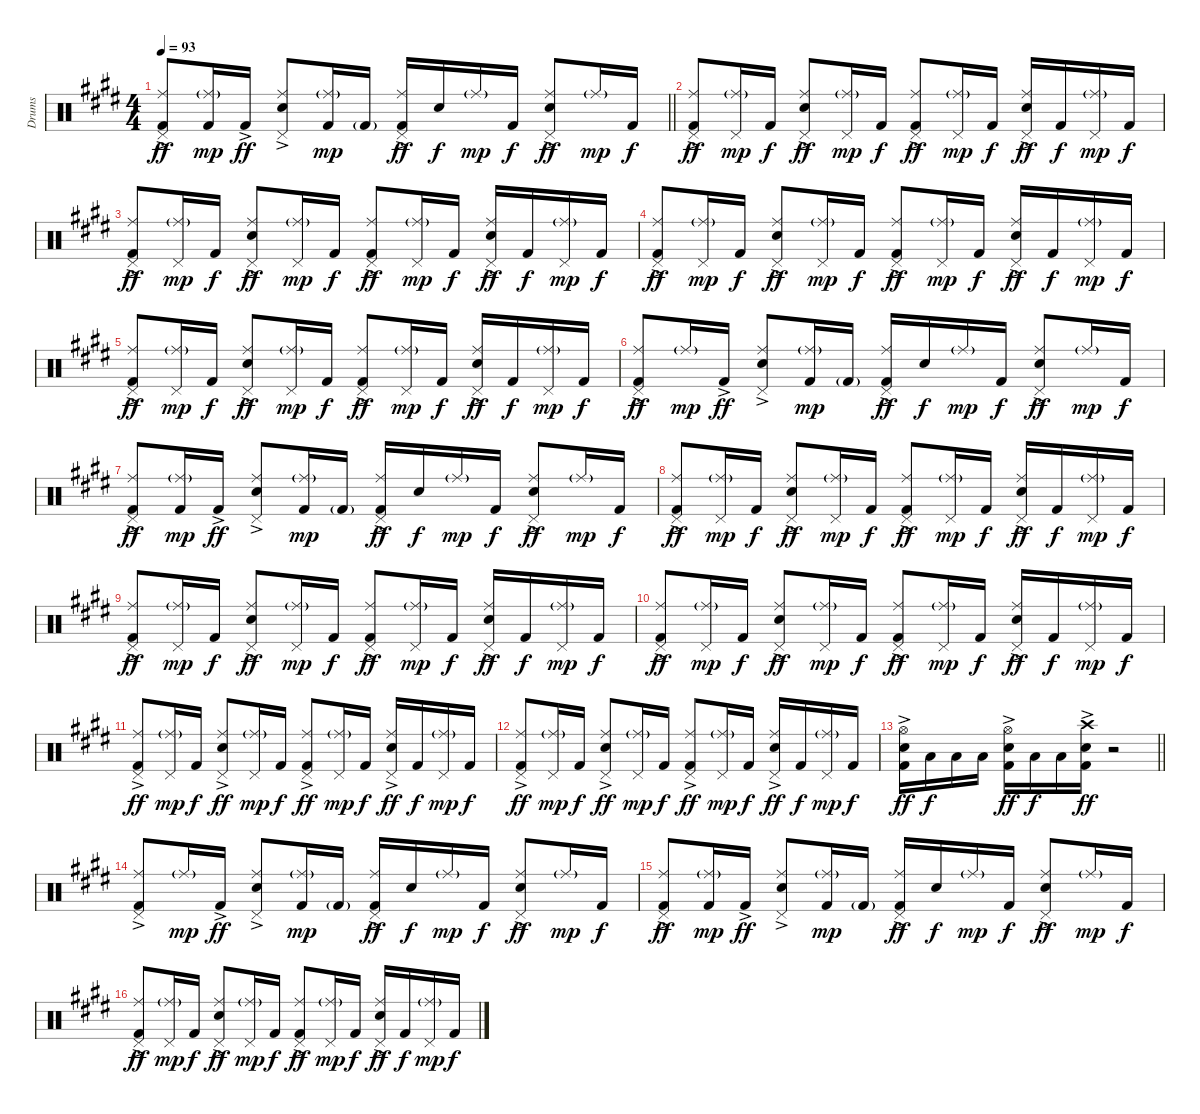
\track ("Drums" "Drums") {instrument percussion}
\staff {score}
\articulation defaults
\ts (4 4)
\tempo 93
\clef neutral
\barLineRight lightlight
\ks e
("Pedal Hi-Hat (hit)" "Ride (middle)" "Kick (hit) 2"{ac}).8{dy ff} ("Ride (middle)"{g} "Kick (hit) 2").16{dy mp} "Kick (hit) 2"{ac}.16{dy ff} ("Pedal Hi-Hat (hit)" "Ride (middle)" "Snare (hit) 2"{ac}).8 ("Ride (middle)"{g} "Kick (hit) 2").16{dy mp} "Kick (hit) 2"{g}.16 ("Pedal Hi-Hat (hit)" "Ride (middle)" "Kick (hit) 2"{ac}).16{dy ff} "Snare (hit) 2".16{dy f} "Ride (middle)"{g}.16{dy mp} "Kick (hit) 2".16{dy f} ("Pedal Hi-Hat (hit)" "Ride (middle)" "Snare (hit) 2"{ac}).8{dy ff} "Ride (middle)"{g}.16{dy mp} "Kick (hit) 2".16{dy f} |
("Pedal Hi-Hat (hit)" "Ride (middle)" "Kick (hit) 2"{ac}).8{dy ff} ("Pedal Hi-Hat (hit)" "Ride (middle)"{g}).16{dy mp} "Kick (hit) 2".16{dy f} ("Pedal Hi-Hat (hit)" "Ride (middle)" "Snare (hit) 2"{ac}).8{dy ff} ("Pedal Hi-Hat (hit)" "Ride (middle)"{g}).16{dy mp} "Kick (hit) 2".16{dy f} ("Pedal Hi-Hat (hit)" "Ride (middle)" "Kick (hit) 2"{ac}).8{dy ff} ("Pedal Hi-Hat (hit)" "Ride (middle)"{g}).16{dy mp} "Kick (hit) 2".16{dy f} ("Pedal Hi-Hat (hit)" "Ride (middle)" "Snare (hit) 2"{ac}).16{dy ff} "Kick (hit) 2".16{dy f} ("Pedal Hi-Hat (hit)" "Ride (middle)"{g}).16{dy mp} "Kick (hit) 2".16{dy f} |
("Pedal Hi-Hat (hit)" "Ride (middle)" "Kick (hit) 2"{ac}).8{dy ff} ("Pedal Hi-Hat (hit)" "Ride (middle)"{g}).16{dy mp} "Kick (hit) 2".16{dy f} ("Pedal Hi-Hat (hit)" "Ride (middle)" "Snare (hit) 2"{ac}).8{dy ff} ("Pedal Hi-Hat (hit)" "Ride (middle)"{g}).16{dy mp} "Kick (hit) 2".16{dy f} ("Pedal Hi-Hat (hit)" "Ride (middle)" "Kick (hit) 2"{ac}).8{dy ff} ("Pedal Hi-Hat (hit)" "Ride (middle)"{g}).16{dy mp} "Kick (hit) 2".16{dy f} ("Pedal Hi-Hat (hit)" "Ride (middle)" "Snare (hit) 2"{ac}).16{dy ff} "Kick (hit) 2".16{dy f} ("Pedal Hi-Hat (hit)" "Ride (middle)"{g}).16{dy mp} "Kick (hit) 2".16{dy f} |
("Pedal Hi-Hat (hit)" "Ride (middle)" "Kick (hit) 2"{ac}).8{dy ff} ("Pedal Hi-Hat (hit)" "Ride (middle)"{g}).16{dy mp} "Kick (hit) 2".16{dy f} ("Pedal Hi-Hat (hit)" "Ride (middle)" "Snare (hit) 2"{ac}).8{dy ff} ("Pedal Hi-Hat (hit)" "Ride (middle)"{g}).16{dy mp} "Kick (hit) 2".16{dy f} ("Pedal Hi-Hat (hit)" "Ride (middle)" "Kick (hit) 2"{ac}).8{dy ff} ("Pedal Hi-Hat (hit)" "Ride (middle)"{g}).16{dy mp} "Kick (hit) 2".16{dy f} ("Pedal Hi-Hat (hit)" "Ride (middle)" "Snare (hit) 2"{ac}).16{dy ff} "Kick (hit) 2".16{dy f} ("Pedal Hi-Hat (hit)" "Ride (middle)"{g}).16{dy mp} "Kick (hit) 2".16{dy f} |
("Pedal Hi-Hat (hit)" "Ride (middle)" "Kick (hit) 2"{ac}).8{dy ff} ("Pedal Hi-Hat (hit)" "Ride (middle)"{g}).16{dy mp} "Kick (hit) 2".16{dy f} ("Pedal Hi-Hat (hit)" "Ride (middle)" "Snare (hit) 2"{ac}).8{dy ff} ("Pedal Hi-Hat (hit)" "Ride (middle)"{g}).16{dy mp} "Kick (hit) 2".16{dy f} ("Pedal Hi-Hat (hit)" "Ride (middle)" "Kick (hit) 2"{ac}).8{dy ff} ("Pedal Hi-Hat (hit)" "Ride (middle)"{g}).16{dy mp} "Kick (hit) 2".16{dy f} ("Pedal Hi-Hat (hit)" "Ride (middle)" "Snare (hit) 2"{ac}).16{dy ff} "Kick (hit) 2".16{dy f} ("Pedal Hi-Hat (hit)" "Ride (middle)"{g}).16{dy mp} "Kick (hit) 2".16{dy f} |
("Pedal Hi-Hat (hit)" "Ride (middle)" "Kick (hit) 2"{ac}).8{dy ff} "Ride (middle)"{g}.16{dy mp} "Kick (hit) 2"{ac}.16{dy ff} ("Pedal Hi-Hat (hit)" "Ride (middle)" "Snare (hit) 2"{ac}).8 ("Ride (middle)"{g} "Kick (hit) 2").16{dy mp} "Kick (hit) 2"{g}.16 ("Pedal Hi-Hat (hit)" "Ride (middle)" "Kick (hit) 2"{ac}).16{dy ff} "Snare (hit) 2".16{dy f} "Ride (middle)"{g}.16{dy mp} "Kick (hit) 2".16{dy f} ("Pedal Hi-Hat (hit)" "Ride (middle)" "Snare (hit) 2"{ac}).8{dy ff} "Ride (middle)"{g}.16{dy mp} "Kick (hit) 2".16{dy f} |
("Pedal Hi-Hat (hit)" "Ride (middle)" "Kick (hit) 2"{ac}).8{dy ff} ("Ride (middle)"{g} "Kick (hit) 2").16{dy mp} "Kick (hit) 2"{ac}.16{dy ff} ("Pedal Hi-Hat (hit)" "Ride (middle)" "Snare (hit) 2"{ac}).8 ("Ride (middle)"{g} "Kick (hit) 2").16{dy mp} "Kick (hit) 2"{g}.16 ("Pedal Hi-Hat (hit)" "Ride (middle)" "Kick (hit) 2"{ac}).16{dy ff} "Snare (hit) 2".16{dy f} "Ride (middle)"{g}.16{dy mp} "Kick (hit) 2".16{dy f} ("Pedal Hi-Hat (hit)" "Ride (middle)" "Snare (hit) 2"{ac}).8{dy ff} "Ride (middle)"{g}.16{dy mp} "Kick (hit) 2".16{dy f} |
("Pedal Hi-Hat (hit)" "Ride (middle)" "Kick (hit) 2"{ac}).8{dy ff} ("Pedal Hi-Hat (hit)" "Ride (middle)"{g}).16{dy mp} "Kick (hit) 2".16{dy f} ("Pedal Hi-Hat (hit)" "Ride (middle)" "Snare (hit) 2"{ac}).8{dy ff} ("Pedal Hi-Hat (hit)" "Ride (middle)"{g}).16{dy mp} "Kick (hit) 2".16{dy f} ("Pedal Hi-Hat (hit)" "Ride (middle)" "Kick (hit) 2"{ac}).8{dy ff} ("Pedal Hi-Hat (hit)" "Ride (middle)"{g}).16{dy mp} "Kick (hit) 2".16{dy f} ("Pedal Hi-Hat (hit)" "Ride (middle)" "Snare (hit) 2"{ac}).16{dy ff} "Kick (hit) 2".16{dy f} ("Pedal Hi-Hat (hit)" "Ride (middle)"{g}).16{dy mp} "Kick (hit) 2".16{dy f} |
("Pedal Hi-Hat (hit)" "Ride (middle)" "Kick (hit) 2"{ac}).8{dy ff} ("Pedal Hi-Hat (hit)" "Ride (middle)"{g}).16{dy mp} "Kick (hit) 2".16{dy f} ("Pedal Hi-Hat (hit)" "Ride (middle)" "Snare (hit) 2"{ac}).8{dy ff} ("Pedal Hi-Hat (hit)" "Ride (middle)"{g}).16{dy mp} "Kick (hit) 2".16{dy f} ("Pedal Hi-Hat (hit)" "Ride (middle)" "Kick (hit) 2"{ac}).8{dy ff} ("Pedal Hi-Hat (hit)" "Ride (middle)"{g}).16{dy mp} "Kick (hit) 2".16{dy f} ("Pedal Hi-Hat (hit)" "Ride (middle)" "Snare (hit) 2"{ac}).16{dy ff} "Kick (hit) 2".16{dy f} ("Pedal Hi-Hat (hit)" "Ride (middle)"{g}).16{dy mp} "Kick (hit) 2".16{dy f} |
("Pedal Hi-Hat (hit)" "Ride (middle)" "Kick (hit) 2"{ac}).8{dy ff} ("Pedal Hi-Hat (hit)" "Ride (middle)"{g}).16{dy mp} "Kick (hit) 2".16{dy f} ("Pedal Hi-Hat (hit)" "Ride (middle)" "Snare (hit) 2"{ac}).8{dy ff} ("Pedal Hi-Hat (hit)" "Ride (middle)"{g}).16{dy mp} "Kick (hit) 2".16{dy f} ("Pedal Hi-Hat (hit)" "Ride (middle)" "Kick (hit) 2"{ac}).8{dy ff} ("Pedal Hi-Hat (hit)" "Ride (middle)"{g}).16{dy mp} "Kick (hit) 2".16{dy f} ("Pedal Hi-Hat (hit)" "Ride (middle)" "Snare (hit) 2"{ac}).16{dy ff} "Kick (hit) 2".16{dy f} ("Pedal Hi-Hat (hit)" "Ride (middle)"{g}).16{dy mp} "Kick (hit) 2".16{dy f} |
("Pedal Hi-Hat (hit)" "Ride (middle)" "Kick (hit) 2"{ac}).8{dy ff} ("Pedal Hi-Hat (hit)" "Ride (middle)"{g}).16{dy mp} "Kick (hit) 2".16{dy f} ("Pedal Hi-Hat (hit)" "Ride (middle)" "Snare (hit) 2"{ac}).8{dy ff} ("Pedal Hi-Hat (hit)" "Ride (middle)"{g}).16{dy mp} "Kick (hit) 2".16{dy f} ("Pedal Hi-Hat (hit)" "Ride (middle)" "Kick (hit) 2"{ac}).8{dy ff} ("Pedal Hi-Hat (hit)" "Ride (middle)"{g}).16{dy mp} "Kick (hit) 2".16{dy f} ("Pedal Hi-Hat (hit)" "Ride (middle)" "Snare (hit) 2"{ac}).16{dy ff} "Kick (hit) 2".16{dy f} ("Pedal Hi-Hat (hit)" "Ride (middle)"{g}).16{dy mp} "Kick (hit) 2".16{dy f} |
("Pedal Hi-Hat (hit)" "Ride (middle)" "Kick (hit) 2"{ac}).8{dy ff} ("Pedal Hi-Hat (hit)" "Ride (middle)"{g}).16{dy mp} "Kick (hit) 2".16{dy f} ("Pedal Hi-Hat (hit)" "Ride (middle)" "Snare (hit) 2"{ac}).8{dy ff} ("Pedal Hi-Hat (hit)" "Ride (middle)"{g}).16{dy mp} "Kick (hit) 2".16{dy f} ("Pedal Hi-Hat (hit)" "Ride (middle)" "Kick (hit) 2"{ac}).8{dy ff} ("Pedal Hi-Hat (hit)" "Ride (middle)"{g}).16{dy mp} "Kick (hit) 2".16{dy f} ("Pedal Hi-Hat (hit)" "Ride (middle)" "Snare (hit) 2"{ac}).16{dy ff} "Kick (hit) 2".16{dy f} ("Pedal Hi-Hat (hit)" "Ride (middle)"{g}).16{dy mp} "Kick (hit) 2".16{dy f} |
\barLineRight lightlight
("Hi-Hat (open)" "Snare (hit) 2"{ac} "Kick (hit) 2"{ac}).16{dy ff} "Low Tom (hit)".16{dy f} "Low Floor Tom (hit)".16 "Low Floor Tom (hit)".16 ("Hi-Hat (open)" "Snare (hit) 2"{ac} "Kick (hit) 2"{ac}).16{dy ff} "Low Tom (hit)".16{dy f} "Low Floor Tom (hit)".16 ("Crash high (hit)" "Snare (hit) 2"{ac} "Kick (hit) 2"{ac}).16{dy ff} r.2 |
("Pedal Hi-Hat (hit)" "Ride (middle)" "Kick (hit) 2"{ac}).8 "Ride (middle)"{g}.16{dy mp} "Kick (hit) 2"{ac}.16{dy ff} ("Pedal Hi-Hat (hit)" "Ride (middle)" "Snare (hit) 2"{ac}).8 ("Ride (middle)"{g} "Kick (hit) 2").16{dy mp} "Kick (hit) 2"{g}.16 ("Pedal Hi-Hat (hit)" "Ride (middle)" "Kick (hit) 2"{ac}).16{dy ff} "Snare (hit) 2".16{dy f} "Ride (middle)"{g}.16{dy mp} "Kick (hit) 2".16{dy f} ("Pedal Hi-Hat (hit)" "Ride (middle)" "Snare (hit) 2"{ac}).8{dy ff} "Ride (middle)"{g}.16{dy mp} "Kick (hit) 2".16{dy f} |
("Pedal Hi-Hat (hit)" "Ride (middle)" "Kick (hit) 2"{ac}).8{dy ff} ("Ride (middle)"{g} "Kick (hit) 2").16{dy mp} "Kick (hit) 2"{ac}.16{dy ff} ("Pedal Hi-Hat (hit)" "Ride (middle)" "Snare (hit) 2"{ac}).8 ("Ride (middle)"{g} "Kick (hit) 2").16{dy mp} "Kick (hit) 2"{g}.16 ("Pedal Hi-Hat (hit)" "Ride (middle)" "Kick (hit) 2"{ac}).16{dy ff} "Snare (hit) 2".16{dy f} "Ride (middle)"{g}.16{dy mp} "Kick (hit) 2".16{dy f} ("Pedal Hi-Hat (hit)" "Ride (middle)" "Snare (hit) 2"{ac}).8{dy ff} "Ride (middle)"{g}.16{dy mp} "Kick (hit) 2".16{dy f} |
("Pedal Hi-Hat (hit)" "Ride (middle)" "Kick (hit) 2"{ac}).8{dy ff} ("Pedal Hi-Hat (hit)" "Ride (middle)"{g}).16{dy mp} "Kick (hit) 2".16{dy f} ("Pedal Hi-Hat (hit)" "Ride (middle)" "Snare (hit) 2"{ac}).8{dy ff} ("Pedal Hi-Hat (hit)" "Ride (middle)"{g}).16{dy mp} "Kick (hit) 2".16{dy f} ("Pedal Hi-Hat (hit)" "Ride (middle)" "Kick (hit) 2"{ac}).8{dy ff} ("Pedal Hi-Hat (hit)" "Ride (middle)"{g}).16{dy mp} "Kick (hit) 2".16{dy f} ("Pedal Hi-Hat (hit)" "Ride (middle)" "Snare (hit) 2"{ac}).16{dy ff} "Kick (hit) 2".16{dy f} ("Pedal Hi-Hat (hit)" "Ride (middle)"{g}).16{dy mp} "Kick (hit) 2".16{dy f}
